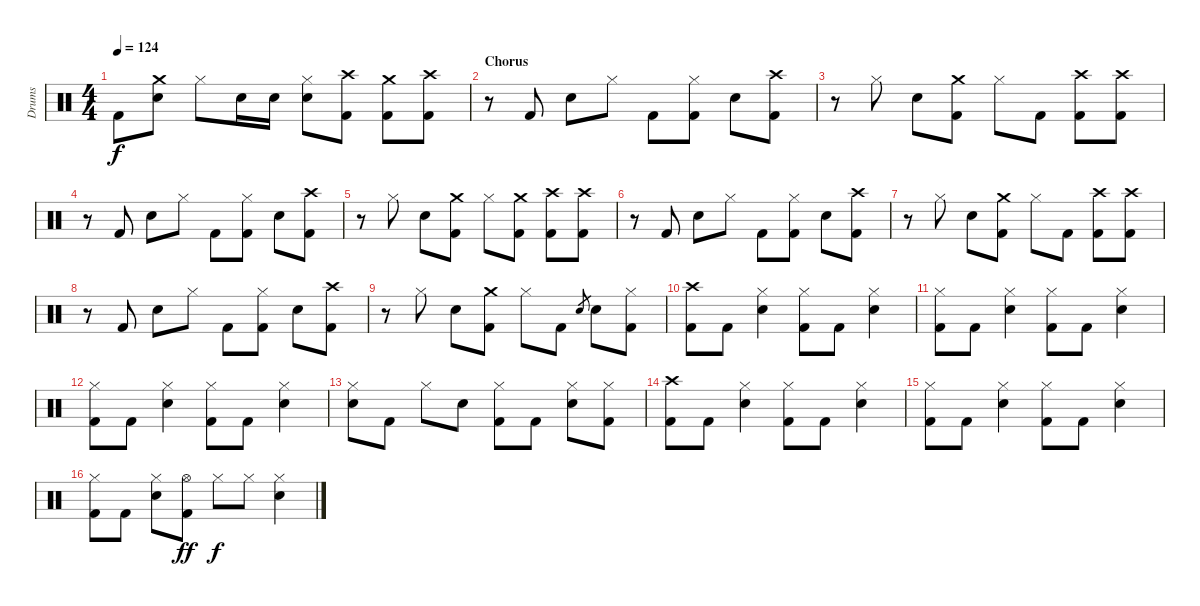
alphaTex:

\track ("Drums" "Drums") {instrument percussion}
\staff {score}
\articulation defaults
\ts (4 4)
\tempo 124
\clef neutral
\ks c "Kick (hit) 2".8{dy f}
("Snare (hit) 2" "Crash medium (hit)").8 "Hi-Hat (closed)".8 "Snare (hit) 2".16 "Snare (hit) 2".16 ("Snare (hit) 2" "Hi-Hat (closed)").8 ("Kick (hit) 2" "Crash high (hit)").8 ("Kick (hit) 2" "Crash medium (hit)").8 ("Kick (hit) 2" "Crash high (hit)").8 |
\section ("" "Chorus")
r.8 "Kick (hit) 2".8 "Snare (hit) 2".8 "Hi-Hat (closed)".8 "Kick (hit) 2".8 ("Kick (hit) 2" "Hi-Hat (closed)").8 "Snare (hit) 2".8 ("Kick (hit) 2" "Crash high (hit)").8 |
r.8 "Hi-Hat (closed)".8 "Snare (hit) 2".8 ("Kick (hit) 2" "Crash medium (hit)").8 "Hi-Hat (closed)".8 "Kick (hit) 2".8 ("Kick (hit) 2" "Crash high (hit)").8 ("Kick (hit) 2" "Crash high (hit)").8 |
r.8 "Kick (hit) 2".8 "Snare (hit) 2".8 "Hi-Hat (closed)".8 "Kick (hit) 2".8 ("Kick (hit) 2" "Hi-Hat (closed)").8 "Snare (hit) 2".8 ("Kick (hit) 2" "Crash high (hit)").8 |
r.8 "Hi-Hat (closed)".8 "Snare (hit) 2".8 ("Kick (hit) 2" "Crash medium (hit)").8 "Hi-Hat (closed)".8 ("Kick (hit) 2" "Crash medium (hit)").8 ("Kick (hit) 2" "Crash high (hit)").8 ("Kick (hit) 2" "Crash high (hit)").8 |
r.8 "Kick (hit) 2".8 "Snare (hit) 2".8 "Hi-Hat (closed)".8 "Kick (hit) 2".8 ("Kick (hit) 2" "Hi-Hat (closed)").8 "Snare (hit) 2".8 ("Kick (hit) 2" "Crash high (hit)").8 |
r.8 "Hi-Hat (closed)".8 "Snare (hit) 2".8 ("Kick (hit) 2" "Crash medium (hit)").8 "Hi-Hat (closed)".8 "Kick (hit) 2".8 ("Kick (hit) 2" "Crash high (hit)").8 ("Kick (hit) 2" "Crash high (hit)").8 |
r.8 "Kick (hit) 2".8 "Snare (hit) 2".8 "Hi-Hat (closed)".8 "Kick (hit) 2".8 ("Kick (hit) 2" "Hi-Hat (closed)").8 "Snare (hit) 2".8 ("Kick (hit) 2" "Crash high (hit)").8 |
r.8 "Hi-Hat (closed)".8 "Snare (hit) 2".8 ("Kick (hit) 2" "Crash medium (hit)").8 "Hi-Hat (closed)".8 "Kick (hit) 2".8 "Snare (hit) 2".8{gr} "Snare (hit) 2".8 ("Kick (hit) 2" "Hi-Hat (closed)").8 |
("Kick (hit) 2" "Crash high (hit)").8 "Kick (hit) 2".8 ("Snare (hit) 2" "Hi-Hat (closed)").4 ("Kick (hit) 2" "Hi-Hat (closed)").8 "Kick (hit) 2".8 ("Snare (hit) 2" "Hi-Hat (closed)").4 |
("Kick (hit) 2" "Hi-Hat (closed)").8 "Kick (hit) 2".8 ("Snare (hit) 2" "Hi-Hat (closed)").4 ("Kick (hit) 2" "Hi-Hat (closed)").8 "Kick (hit) 2".8 ("Snare (hit) 2" "Hi-Hat (closed)").4 |
("Kick (hit) 2" "Hi-Hat (closed)").8 "Kick (hit) 2".8 ("Snare (hit) 2" "Hi-Hat (closed)").4 ("Kick (hit) 2" "Hi-Hat (closed)").8 "Kick (hit) 2".8 ("Snare (hit) 2" "Hi-Hat (closed)").4 |
("Snare (hit) 2" "Hi-Hat (closed)").8 "Kick (hit) 2".8 "Hi-Hat (closed)".8 "Snare (hit) 2".8 ("Kick (hit) 2" "Hi-Hat (closed)").8 "Kick (hit) 2".8 ("Snare (hit) 2" "Hi-Hat (closed)").8 ("Kick (hit) 2" "Hi-Hat (closed)").8 |
("Kick (hit) 2" "Crash high (hit)").8 "Kick (hit) 2".8 ("Snare (hit) 2" "Hi-Hat (closed)").4 ("Kick (hit) 2" "Hi-Hat (closed)").8 "Kick (hit) 2".8 ("Snare (hit) 2" "Hi-Hat (closed)").4 |
("Kick (hit) 2" "Hi-Hat (closed)").8 "Kick (hit) 2".8 ("Snare (hit) 2" "Hi-Hat (closed)").4 ("Kick (hit) 2" "Hi-Hat (closed)").8 "Kick (hit) 2".8 ("Snare (hit) 2" "Hi-Hat (closed)").4 |
("Kick (hit) 2" "Hi-Hat (closed)").8 "Kick (hit) 2".8 ("Snare (hit) 2" "Hi-Hat (closed)").8 ("Kick (hit) 2" "Hi-Hat (open)").8{dy ff} "Hi-Hat (closed)".8{dy f} "Hi-Hat (closed)".8 ("Snare (hit) 2" "Hi-Hat (closed)").4
